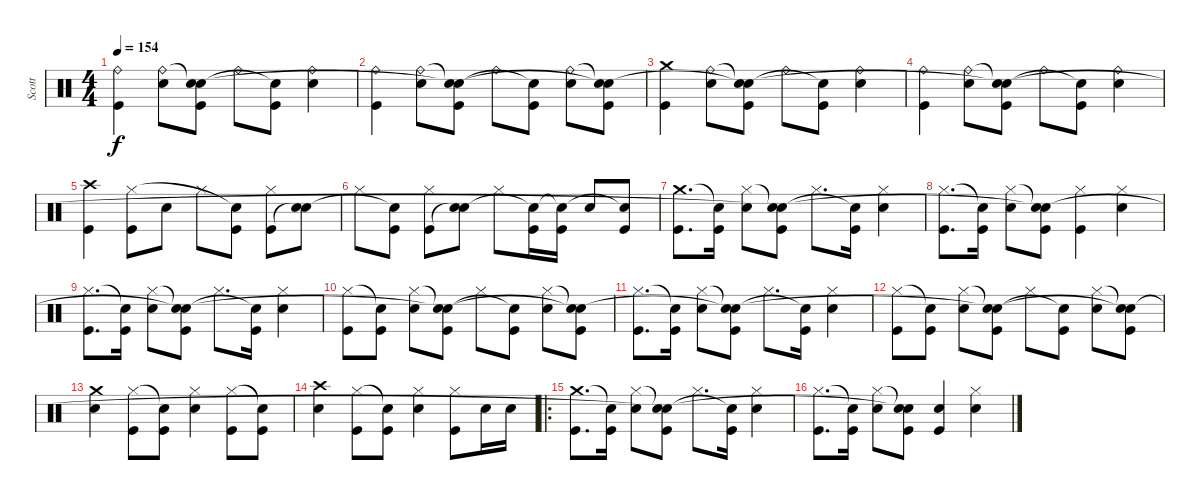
\track ("Scott" "Scott") {instrument percussion}
\staff {score}
\articulation defaults
\ts (4 4)
\tempo 154
\clef neutral
\ks c
("Kick (hit)" "Ride (bell)").4{dy f} ("Snare (hit) 2" "Ride (bell)").8 ("Kick (hit)" "Snare (hit)"{t} "Snare (hit)"{t}).8 "Ride (bell)".8 ("Kick (hit)" "Snare (hit)"{t}).8 ("Snare (hit) 2" "Ride (bell)").4 |
("Kick (hit)" "Ride (bell)").4 ("Snare (hit) 2" "Ride (bell)").8 ("Kick (hit)" "Snare (hit)"{t} "Snare (hit)"{t}).8 "Ride (bell)".8 ("Kick (hit)" "Snare (hit)"{t}).8 ("Snare (hit) 2" "Ride (bell)").8 ("Kick (hit)" "Snare (hit)"{t} "Snare (hit)"{t}).8 |
("Kick (hit)" "Crash medium (hit)").4 ("Snare (hit) 2" "Ride (bell)").8 ("Kick (hit)" "Snare (hit)"{t} "Snare (hit)"{t}).8 "Ride (bell)".8 ("Kick (hit)" "Snare (hit)"{t}).8 ("Snare (hit) 2" "Ride (bell)").4 |
("Kick (hit)" "Ride (bell)").4 ("Snare (hit) 2" "Ride (bell)").8 ("Kick (hit)" "Snare (hit)"{t} "Snare (hit)"{t}).8 "Ride (bell)".8 ("Kick (hit)" "Snare (hit)"{t}).8 ("Snare (hit) 2" "Ride (bell)").4 |
("Kick (hit)" "Crash high (hit)").4 ("Kick (hit)" "Hi-Hat (closed)").8 "Snare (hit) 2".8 "Hi-Hat (closed)".8 ("Kick (hit)" "Snare (hit)"{t}).8 ("Kick (hit)" "Hi-Hat (closed)").8 ("Snare (hit)"{t} "Snare (hit) 2").8 |
"Hi-Hat (closed)".8 ("Kick (hit)" "Snare (hit)"{t}).8 ("Kick (hit)" "Hi-Hat (closed)").8 ("Snare (hit)"{t} "Snare (hit) 2").8 "Hi-Hat (closed)".8 ("Kick (hit)" "Snare (hit)"{t}).16 ("Kick (hit)" "Snare (hit)"{t}).16 "Snare (hit) 2".8 ("Kick (hit)" "Snare (hit)"{t}).8 |
("Kick (hit)" "Crash medium (hit)").8{d} ("Kick (hit)" "Snare (hit)"{t}).16 ("Snare (hit) 2" "Hi-Hat (closed)").8 ("Kick (hit)" "Snare (hit)"{t} "Snare (hit)"{t}).8 "Hi-Hat (closed)".8{d} ("Kick (hit)" "Snare (hit)"{t}).16 ("Snare (hit) 2" "Hi-Hat (closed)").4 |
("Kick (hit)" "Hi-Hat (closed)").8{d} ("Kick (hit)" "Snare (hit)"{t}).16 ("Snare (hit) 2" "Hi-Hat (closed)").8 ("Kick (hit)" "Snare (hit)"{t} "Snare (hit)"{t}).8 ("Kick (hit)" "Hi-Hat (closed)").4 ("Snare (hit) 2" "Hi-Hat (closed)").4 |
("Kick (hit)" "Hi-Hat (closed)").8{d} ("Kick (hit)" "Snare (hit)"{t}).16 ("Snare (hit) 2" "Hi-Hat (closed)").8 ("Kick (hit)" "Snare (hit)"{t} "Snare (hit)"{t}).8 "Hi-Hat (closed)".8{d} ("Kick (hit)" "Snare (hit)"{t}).16 ("Snare (hit) 2" "Hi-Hat (closed)").4 |
("Kick (hit)" "Hi-Hat (closed)").8 ("Kick (hit)" "Snare (hit)"{t}).8 ("Snare (hit) 2" "Hi-Hat (closed)").8 ("Kick (hit)" "Snare (hit)"{t} "Snare (hit)"{t}).8 "Hi-Hat (closed)".8 ("Kick (hit)" "Snare (hit)"{t}).8 ("Snare (hit) 2" "Hi-Hat (closed)").8 ("Kick (hit)" "Snare (hit)"{t} "Snare (hit)"{t}).8 |
("Kick (hit)" "Hi-Hat (closed)").8{d} ("Kick (hit)" "Snare (hit)"{t}).16 ("Snare (hit) 2" "Hi-Hat (closed)").8 ("Kick (hit)" "Snare (hit)"{t} "Snare (hit)"{t}).8 "Hi-Hat (closed)".8{d} ("Kick (hit)" "Snare (hit)"{t}).16 ("Snare (hit) 2" "Hi-Hat (closed)").4 |
("Kick (hit)" "Hi-Hat (closed)").8 ("Kick (hit)" "Snare (hit)"{t}).8 ("Snare (hit) 2" "Hi-Hat (closed)").8 ("Kick (hit)" "Snare (hit)"{t} "Snare (hit)"{t}).8 "Hi-Hat (closed)".8 ("Kick (hit)" "Snare (hit)"{t}).8 ("Snare (hit) 2" "Hi-Hat (closed)").8 ("Kick (hit)" "Snare (hit)"{t} "Snare (hit)"{t}).8 |
("Snare (hit) 2" "Crash medium (hit)").4 ("Kick (hit)" "Hi-Hat (closed)").8 ("Kick (hit)" "Snare (hit)"{t}).8 ("Snare (hit) 2" "Hi-Hat (closed)").4 ("Kick (hit)" "Hi-Hat (closed)").8 ("Kick (hit)" "Snare (hit)"{t}).8 |
("Snare (hit) 2" "Crash high (hit)").4 ("Kick (hit)" "Hi-Hat (closed)").8 ("Kick (hit)" "Snare (hit)"{t}).8 ("Snare (hit) 2" "Hi-Hat (closed)").4 ("Kick (hit)" "Hi-Hat (closed)").8 "Snare (hit) 2".16 "Snare (hit) 2".16 |
\ro
("Kick (hit)" "Crash medium (hit)").8{d} ("Kick (hit)" "Snare (hit)"{t}).16 ("Snare (hit) 2" "Hi-Hat (closed)").8 ("Kick (hit)" "Snare (hit)"{t} "Snare (hit)"{t}).8 "Hi-Hat (closed)".8{d} ("Kick (hit)" "Snare (hit)"{t}).16 ("Snare (hit) 2" "Hi-Hat (closed)").4 |
("Kick (hit)" "Hi-Hat (closed)").8{d} ("Kick (hit)" "Snare (hit)"{t}).16 ("Snare (hit) 2" "Hi-Hat (closed)").8 ("Kick (hit)" "Snare (hit)"{t} "Snare (hit)"{t}).8 ("Kick (hit)" "Snare (hit) 2").4 ("Snare (hit) 2" "Hi-Hat (closed)").4
